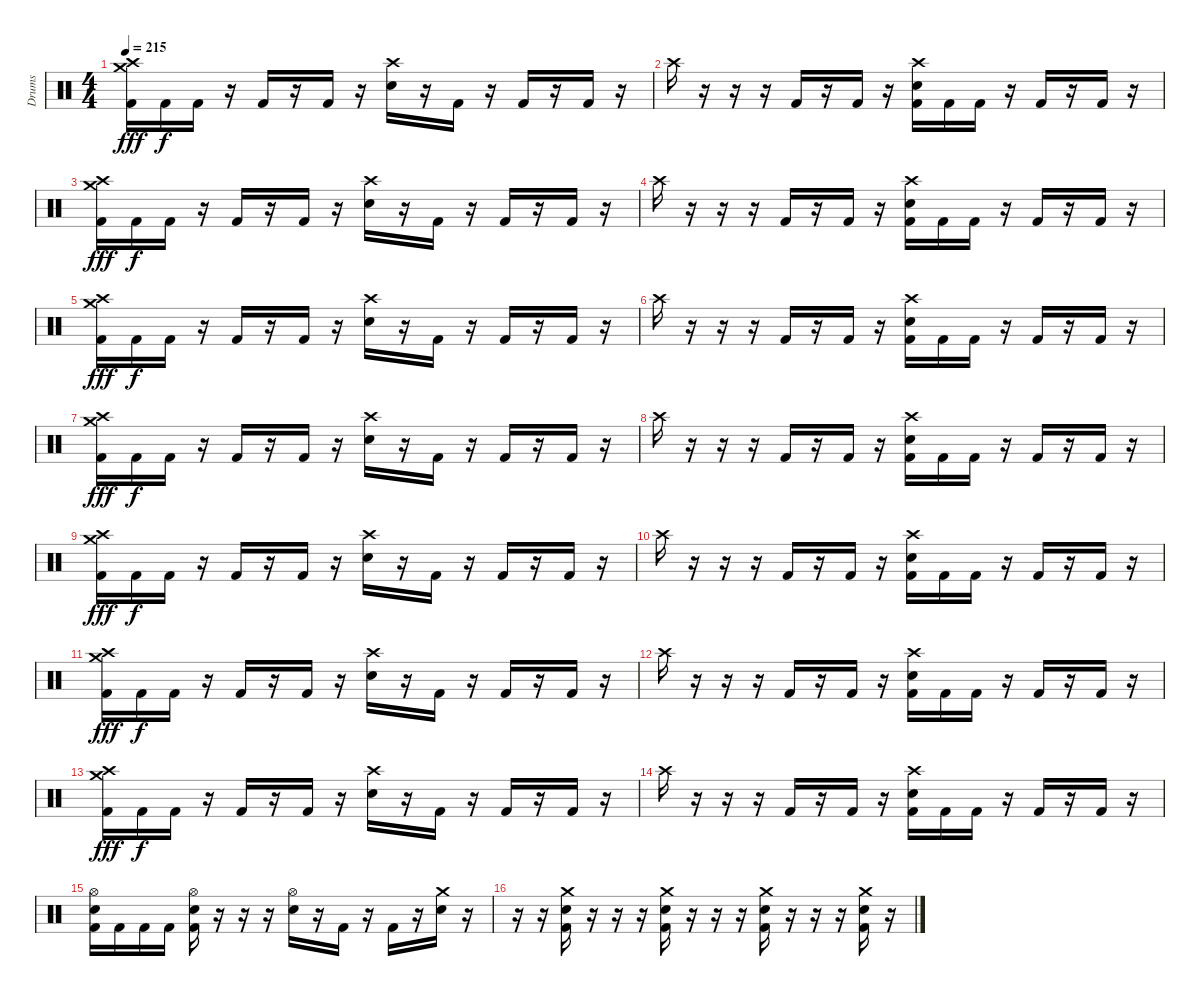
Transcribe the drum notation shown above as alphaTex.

\track ("Drums" "Drums") {instrument percussion}
\staff {score}
\articulation defaults
\ts (4 4)
\tempo 215
\clef neutral
\ks c
("Crash medium (hit)" "Crash high (hit)" "Kick (hit) 2").16{dy fff} "Kick (hit) 2".16{dy f} "Kick (hit) 2".16 r.16 "Kick (hit) 2".16 r.16 "Kick (hit) 2".16 r.16 ("Crash high (hit)" "Snare (hit) 2").16 r.16 "Kick (hit) 2".16 r.16 "Kick (hit) 2".16 r.16 "Kick (hit) 2".16 r.16 |
"Crash high (hit)".16 r.16 r.16 r.16 "Kick (hit) 2".16 r.16 "Kick (hit) 2".16 r.16 ("Crash high (hit)" "Snare (hit) 2" "Kick (hit) 2").16 "Kick (hit) 2".16 "Kick (hit) 2".16 r.16 "Kick (hit) 2".16 r.16 "Kick (hit) 2".16 r.16 |
("Crash medium (hit)" "Crash high (hit)" "Kick (hit) 2").16{dy fff} "Kick (hit) 2".16{dy f} "Kick (hit) 2".16 r.16 "Kick (hit) 2".16 r.16 "Kick (hit) 2".16 r.16 ("Crash high (hit)" "Snare (hit) 2").16 r.16 "Kick (hit) 2".16 r.16 "Kick (hit) 2".16 r.16 "Kick (hit) 2".16 r.16 |
"Crash high (hit)".16 r.16 r.16 r.16 "Kick (hit) 2".16 r.16 "Kick (hit) 2".16 r.16 ("Crash high (hit)" "Snare (hit) 2" "Kick (hit) 2").16 "Kick (hit) 2".16 "Kick (hit) 2".16 r.16 "Kick (hit) 2".16 r.16 "Kick (hit) 2".16 r.16 |
("Crash medium (hit)" "Crash high (hit)" "Kick (hit) 2").16{dy fff} "Kick (hit) 2".16{dy f} "Kick (hit) 2".16 r.16 "Kick (hit) 2".16 r.16 "Kick (hit) 2".16 r.16 ("Crash high (hit)" "Snare (hit) 2").16 r.16 "Kick (hit) 2".16 r.16 "Kick (hit) 2".16 r.16 "Kick (hit) 2".16 r.16 |
"Crash high (hit)".16 r.16 r.16 r.16 "Kick (hit) 2".16 r.16 "Kick (hit) 2".16 r.16 ("Crash high (hit)" "Snare (hit) 2" "Kick (hit) 2").16 "Kick (hit) 2".16 "Kick (hit) 2".16 r.16 "Kick (hit) 2".16 r.16 "Kick (hit) 2".16 r.16 |
("Crash medium (hit)" "Crash high (hit)" "Kick (hit) 2").16{dy fff} "Kick (hit) 2".16{dy f} "Kick (hit) 2".16 r.16 "Kick (hit) 2".16 r.16 "Kick (hit) 2".16 r.16 ("Crash high (hit)" "Snare (hit) 2").16 r.16 "Kick (hit) 2".16 r.16 "Kick (hit) 2".16 r.16 "Kick (hit) 2".16 r.16 |
"Crash high (hit)".16 r.16 r.16 r.16 "Kick (hit) 2".16 r.16 "Kick (hit) 2".16 r.16 ("Crash high (hit)" "Snare (hit) 2" "Kick (hit) 2").16 "Kick (hit) 2".16 "Kick (hit) 2".16 r.16 "Kick (hit) 2".16 r.16 "Kick (hit) 2".16 r.16 |
("Crash medium (hit)" "Crash high (hit)" "Kick (hit) 2").16{dy fff} "Kick (hit) 2".16{dy f} "Kick (hit) 2".16 r.16 "Kick (hit) 2".16 r.16 "Kick (hit) 2".16 r.16 ("Crash high (hit)" "Snare (hit) 2").16 r.16 "Kick (hit) 2".16 r.16 "Kick (hit) 2".16 r.16 "Kick (hit) 2".16 r.16 |
"Crash high (hit)".16 r.16 r.16 r.16 "Kick (hit) 2".16 r.16 "Kick (hit) 2".16 r.16 ("Crash high (hit)" "Snare (hit) 2" "Kick (hit) 2").16 "Kick (hit) 2".16 "Kick (hit) 2".16 r.16 "Kick (hit) 2".16 r.16 "Kick (hit) 2".16 r.16 |
("Crash medium (hit)" "Crash high (hit)" "Kick (hit) 2").16{dy fff} "Kick (hit) 2".16{dy f} "Kick (hit) 2".16 r.16 "Kick (hit) 2".16 r.16 "Kick (hit) 2".16 r.16 ("Crash high (hit)" "Snare (hit) 2").16 r.16 "Kick (hit) 2".16 r.16 "Kick (hit) 2".16 r.16 "Kick (hit) 2".16 r.16 |
"Crash high (hit)".16 r.16 r.16 r.16 "Kick (hit) 2".16 r.16 "Kick (hit) 2".16 r.16 ("Crash high (hit)" "Snare (hit) 2" "Kick (hit) 2").16 "Kick (hit) 2".16 "Kick (hit) 2".16 r.16 "Kick (hit) 2".16 r.16 "Kick (hit) 2".16 r.16 |
("Crash medium (hit)" "Crash high (hit)" "Kick (hit) 2").16{dy fff} "Kick (hit) 2".16{dy f} "Kick (hit) 2".16 r.16 "Kick (hit) 2".16 r.16 "Kick (hit) 2".16 r.16 ("Crash high (hit)" "Snare (hit) 2").16 r.16 "Kick (hit) 2".16 r.16 "Kick (hit) 2".16 r.16 "Kick (hit) 2".16 r.16 |
"Crash high (hit)".16 r.16 r.16 r.16 "Kick (hit) 2".16 r.16 "Kick (hit) 2".16 r.16 ("Crash high (hit)" "Snare (hit) 2" "Kick (hit) 2").16 "Kick (hit) 2".16 "Kick (hit) 2".16 r.16 "Kick (hit) 2".16 r.16 "Kick (hit) 2".16 r.16 |
("Hi-Hat (open)" "Snare (hit) 2" "Kick (hit) 2").16 "Kick (hit) 2".16 "Kick (hit) 2".16 "Kick (hit) 2".16 ("Hi-Hat (open)" "Snare (hit) 2" "Kick (hit) 2").16 r.16 r.16 r.16 ("Hi-Hat (open)" "Snare (hit) 2").16 r.16 "Kick (hit) 2".16 r.16 "Kick (hit) 2".16 r.16 ("Crash medium (hit)" "Snare (hit) 2").16 r.16 |
r.16 r.16 ("Crash medium (hit)" "Snare (hit) 2" "Kick (hit) 2").16 r.16 r.16 r.16 ("Crash medium (hit)" "Snare (hit) 2" "Kick (hit) 2").16 r.16 r.16 r.16 ("Crash medium (hit)" "Snare (hit) 2" "Kick (hit) 2").16 r.16 r.16 r.16 ("Crash medium (hit)" "Snare (hit) 2" "Kick (hit) 2").16 r.16
